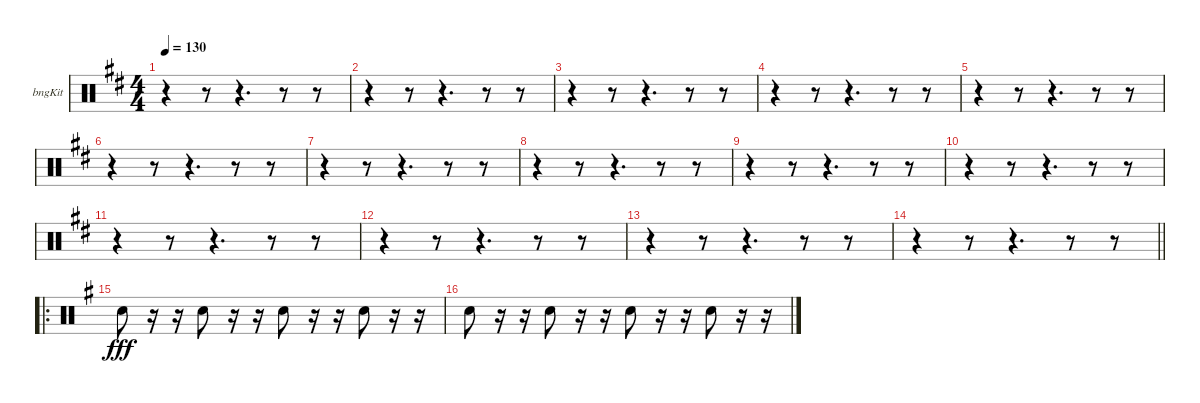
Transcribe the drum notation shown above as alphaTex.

\bracketExtendMode groupsimilarinstruments
\firstSystemTrackNameOrientation horizontal
\otherSystemsTrackNameOrientation horizontal
\track ("Bongos" "bngKit") {instrument percussion}
\staff {score}
\articulation defaults
\ts (4 4)
\tempo 130
\clef neutral
\ks bminor
r.4{dy fff} r.8 r.4{d} r.8 r.8 |
r.4 r.8 r.4{d} r.8 r.8 |
r.4 r.8 r.4{d} r.8 r.8 |
r.4 r.8 r.4{d} r.8 r.8 |
r.4 r.8 r.4{d} r.8 r.8 |
r.4 r.8 r.4{d} r.8 r.8 |
r.4 r.8 r.4{d} r.8 r.8 |
r.4 r.8 r.4{d} r.8 r.8 |
r.4 r.8 r.4{d} r.8 r.8 |
r.4 r.8 r.4{d} r.8 r.8 |
r.4 r.8 r.4{d} r.8 r.8 |
r.4 r.8 r.4{d} r.8 r.8 |
r.4 r.8 r.4{d} r.8 r.8 |
\barLineRight lightlight
r.4 r.8 r.4{d} r.8 r.8 |
\ro
\ks eminor "Snare (hit) 2".8
r.16 r.16 "Snare (hit) 2".8 r.16 r.16 "Snare (hit) 2".8 r.16 r.16 "Snare (hit) 2".8 r.16 r.16 |
"Snare (hit) 2".8 r.16 r.16 "Snare (hit) 2".8 r.16 r.16 "Snare (hit) 2".8 r.16 r.16 "Snare (hit) 2".8 r.16 r.16
